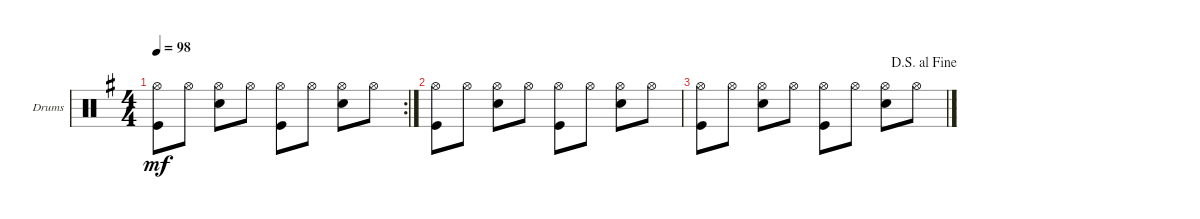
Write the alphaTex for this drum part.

\bracketExtendMode groupsimilarinstruments
\multiBarRest
\firstSystemTrackNameOrientation horizontal
\otherSystemsTrackNameOrientation horizontal
\track ("Drumkit" "Drums") {instrument percussion}
\staff {score}
\articulation defaults
\rc 2
\ts (4 4)
\scale
0.294915
\tempo 98
\accidentals auto
\clef neutral
\ottava regular
\simile none
\ks g
("Kick (hit)" "Hi-Hat (open)").8{dy mf} "Hi-Hat (open)".8 ("Hi-Hat (open)" "Snare (hit) 2").8 "Hi-Hat (open)".8 ("Kick (hit)" "Hi-Hat (open)").8 "Hi-Hat (open)".8 ("Hi-Hat (open)" "Snare (hit) 2").8 "Hi-Hat (open)".8 |
\scale
0.420339 ("Kick (hit)" "Hi-Hat (open)").8 "Hi-Hat (open)".8 ("Hi-Hat (open)" "Snare (hit) 2").8 "Hi-Hat (open)".8 ("Kick (hit)" "Hi-Hat (open)").8 "Hi-Hat (open)".8 ("Hi-Hat (open)" "Snare (hit) 2").8 "Hi-Hat (open)".8 |
\jump dalsegnoalfine
("Kick (hit)" "Hi-Hat (open)").8 "Hi-Hat (open)".8 ("Hi-Hat (open)" "Snare (hit) 2").8 "Hi-Hat (open)".8 ("Kick (hit)" "Hi-Hat (open)").8 "Hi-Hat (open)".8 ("Hi-Hat (open)" "Snare (hit) 2").8 "Hi-Hat (open)".8
